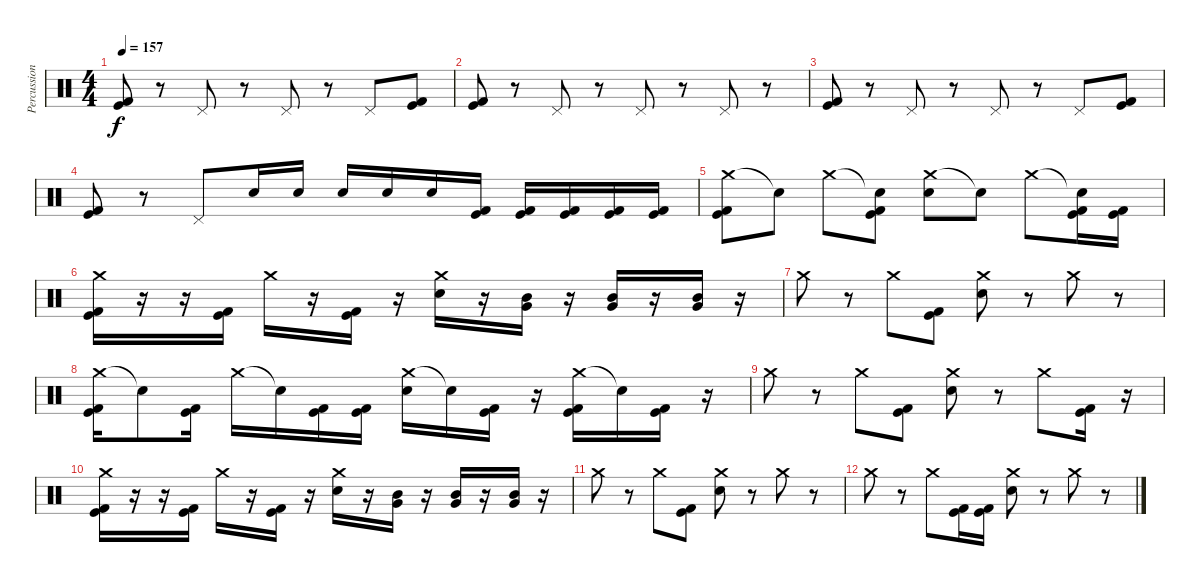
\track ("Percussion" "Percussion") {instrument percussion}
\staff {score}
\articulation defaults
\ts (4 4)
\tempo 157
\clef neutral
\ks c
("Kick (hit)" "Kick (hit) 2").8{dy f} r.8 "Pedal Hi-Hat (hit)".8 r.8 "Pedal Hi-Hat (hit)".8 r.8 "Pedal Hi-Hat (hit)".8 ("Kick (hit)" "Kick (hit) 2").8 |
("Kick (hit)" "Kick (hit) 2").8 r.8 "Pedal Hi-Hat (hit)".8 r.8 "Pedal Hi-Hat (hit)".8 r.8 "Pedal Hi-Hat (hit)".8 r.8 |
("Kick (hit)" "Kick (hit) 2").8 r.8 "Pedal Hi-Hat (hit)".8 r.8 "Pedal Hi-Hat (hit)".8 r.8 "Pedal Hi-Hat (hit)".8 ("Kick (hit)" "Kick (hit) 2").8 |
("Kick (hit)" "Kick (hit) 2").8 r.8 "Pedal Hi-Hat (hit)".8 "Electric Snare (hit)".16 "Electric Snare (hit)".16 "Electric Snare (hit)".16 "Electric Snare (hit)".16 "Electric Snare (hit)".16 ("Kick (hit)" "Kick (hit) 2").16 ("Kick (hit)" "Kick (hit) 2").16 ("Kick (hit)" "Kick (hit) 2").16 ("Kick (hit)" "Kick (hit) 2").16 ("Kick (hit)" "Kick (hit) 2").16 |
("Crash medium (hit)" "Kick (hit)" "Kick (hit) 2").8 "Snare (hit)"{t}.8 "Crash medium (hit)".8 ("Snare (hit)"{t} "Kick (hit)" "Kick (hit) 2").8 ("Crash medium (hit)" "Electric Snare (hit)").8 "Snare (hit)"{t}.8 "Crash medium (hit)".8 ("Snare (hit)"{t} "Kick (hit)" "Kick (hit) 2").16 ("Kick (hit)" "Kick (hit) 2").16 |
("Crash medium (hit)" "Kick (hit)" "Kick (hit) 2").16 r.16 r.16 ("Kick (hit)" "Kick (hit) 2").16 "Crash medium (hit)".16 r.16 ("Kick (hit)" "Kick (hit) 2").16 r.16 ("Crash medium (hit)" "Electric Snare (hit)").16 r.16 ("Mid Tom (hit)" "Very Low Tom (hit)").16 r.16 ("Mid Tom (hit)" "Very Low Tom (hit)").16 r.16 ("Mid Tom (hit)" "Very Low Tom (hit)").16 r.16 |
"Crash medium (hit)".8 r.8 "Crash medium (hit)".8 ("Kick (hit)" "Kick (hit) 2").8 ("Crash medium (hit)" "Electric Snare (hit)").8 r.8 "Crash medium (hit)".8 r.8 |
("Crash medium (hit)" "Kick (hit)" "Kick (hit) 2").16 "Snare (hit)"{t}.8 ("Kick (hit)" "Kick (hit) 2").16 "Crash medium (hit)".16 "Snare (hit)"{t}.16 ("Kick (hit)" "Kick (hit) 2").16 ("Kick (hit)" "Kick (hit) 2").16 ("Crash medium (hit)" "Electric Snare (hit)").16 "Snare (hit)"{t}.16 ("Kick (hit)" "Kick (hit) 2").16 r.16 ("Crash medium (hit)" "Kick (hit)" "Kick (hit) 2").16 "Snare (hit)"{t}.16 ("Kick (hit)" "Kick (hit) 2").16 r.16 |
"Crash medium (hit)".8 r.8 "Crash medium (hit)".8 ("Kick (hit)" "Kick (hit) 2").8 ("Crash medium (hit)" "Electric Snare (hit)").8 r.8 "Crash medium (hit)".8 ("Kick (hit)" "Kick (hit) 2").16 r.16 |
("Crash medium (hit)" "Kick (hit)" "Kick (hit) 2").16 r.16 r.16 ("Kick (hit)" "Kick (hit) 2").16 "Crash medium (hit)".16 r.16 ("Kick (hit)" "Kick (hit) 2").16 r.16 ("Crash medium (hit)" "Electric Snare (hit)").16 r.16 ("Mid Tom (hit)" "Very Low Tom (hit)").16 r.16 ("Mid Tom (hit)" "Very Low Tom (hit)").16 r.16 ("Mid Tom (hit)" "Very Low Tom (hit)").16 r.16 |
"Crash medium (hit)".8 r.8 "Crash medium (hit)".8 ("Kick (hit)" "Kick (hit) 2").8 ("Crash medium (hit)" "Electric Snare (hit)").8 r.8 "Crash medium (hit)".8 r.8 |
"Crash medium (hit)".8 r.8 "Crash medium (hit)".8 ("Kick (hit)" "Kick (hit) 2").16 ("Kick (hit)" "Kick (hit) 2").16 ("Crash medium (hit)" "Electric Snare (hit)").8 r.8 "Crash medium (hit)".8 r.8
